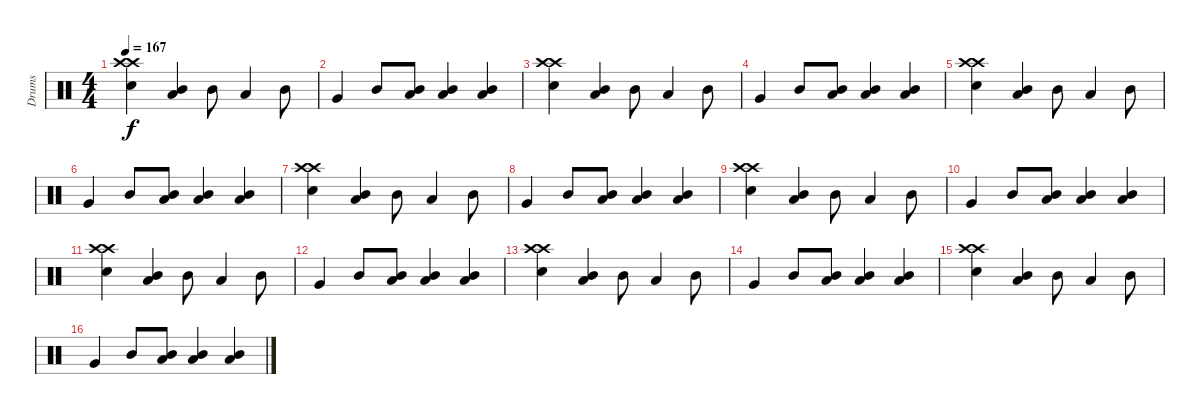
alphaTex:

\track ("Drums" "Drums") {instrument percussion}
\staff {score}
\articulation defaults
\ts (4 4)
\tempo 167
\clef neutral
\ks c
("Crash high (hit)" "Crash high (hit)" "Snare (hit) 2").4{dy f} ("Low Tom (hit)" "Mid Tom (hit)").4 "Mid Tom (hit)".8 "Low Tom (hit)".4 "Mid Tom (hit)".8 |
"Very Low Tom (hit)".4 "Mid Tom (hit)".8 ("Mid Tom (hit)" "Low Tom (hit)").8 ("Mid Tom (hit)" "Low Tom (hit)").4 ("Mid Tom (hit)" "Low Tom (hit)").4 |
("Crash high (hit)" "Crash high (hit)" "Snare (hit) 2").4 ("Low Tom (hit)" "Mid Tom (hit)").4 "Mid Tom (hit)".8 "Low Tom (hit)".4 "Mid Tom (hit)".8 |
"Very Low Tom (hit)".4 "Mid Tom (hit)".8 ("Mid Tom (hit)" "Low Tom (hit)").8 ("Mid Tom (hit)" "Low Tom (hit)").4 ("Mid Tom (hit)" "Low Tom (hit)").4 |
("Crash high (hit)" "Crash high (hit)" "Snare (hit) 2").4 ("Low Tom (hit)" "Mid Tom (hit)").4 "Mid Tom (hit)".8 "Low Tom (hit)".4 "Mid Tom (hit)".8 |
"Very Low Tom (hit)".4 "Mid Tom (hit)".8 ("Mid Tom (hit)" "Low Tom (hit)").8 ("Mid Tom (hit)" "Low Tom (hit)").4 ("Mid Tom (hit)" "Low Tom (hit)").4 |
("Crash high (hit)" "Crash high (hit)" "Snare (hit) 2").4 ("Low Tom (hit)" "Mid Tom (hit)").4 "Mid Tom (hit)".8 "Low Tom (hit)".4 "Mid Tom (hit)".8 |
"Very Low Tom (hit)".4 "Mid Tom (hit)".8 ("Mid Tom (hit)" "Low Tom (hit)").8 ("Mid Tom (hit)" "Low Tom (hit)").4 ("Mid Tom (hit)" "Low Tom (hit)").4 |
("Crash high (hit)" "Crash high (hit)" "Snare (hit) 2").4 ("Low Tom (hit)" "Mid Tom (hit)").4 "Mid Tom (hit)".8 "Low Tom (hit)".4 "Mid Tom (hit)".8 |
"Very Low Tom (hit)".4 "Mid Tom (hit)".8 ("Mid Tom (hit)" "Low Tom (hit)").8 ("Mid Tom (hit)" "Low Tom (hit)").4 ("Mid Tom (hit)" "Low Tom (hit)").4 |
("Crash high (hit)" "Crash high (hit)" "Snare (hit) 2").4 ("Low Tom (hit)" "Mid Tom (hit)").4 "Mid Tom (hit)".8 "Low Tom (hit)".4 "Mid Tom (hit)".8 |
"Very Low Tom (hit)".4 "Mid Tom (hit)".8 ("Mid Tom (hit)" "Low Tom (hit)").8 ("Mid Tom (hit)" "Low Tom (hit)").4 ("Mid Tom (hit)" "Low Tom (hit)").4 |
("Crash high (hit)" "Crash high (hit)" "Snare (hit) 2").4 ("Low Tom (hit)" "Mid Tom (hit)").4 "Mid Tom (hit)".8 "Low Tom (hit)".4 "Mid Tom (hit)".8 |
"Very Low Tom (hit)".4 "Mid Tom (hit)".8 ("Mid Tom (hit)" "Low Tom (hit)").8 ("Mid Tom (hit)" "Low Tom (hit)").4 ("Mid Tom (hit)" "Low Tom (hit)").4 |
("Crash high (hit)" "Crash high (hit)" "Snare (hit) 2").4 ("Low Tom (hit)" "Mid Tom (hit)").4 "Mid Tom (hit)".8 "Low Tom (hit)".4 "Mid Tom (hit)".8 |
"Very Low Tom (hit)".4 "Mid Tom (hit)".8 ("Mid Tom (hit)" "Low Tom (hit)").8 ("Mid Tom (hit)" "Low Tom (hit)").4 ("Mid Tom (hit)" "Low Tom (hit)").4
